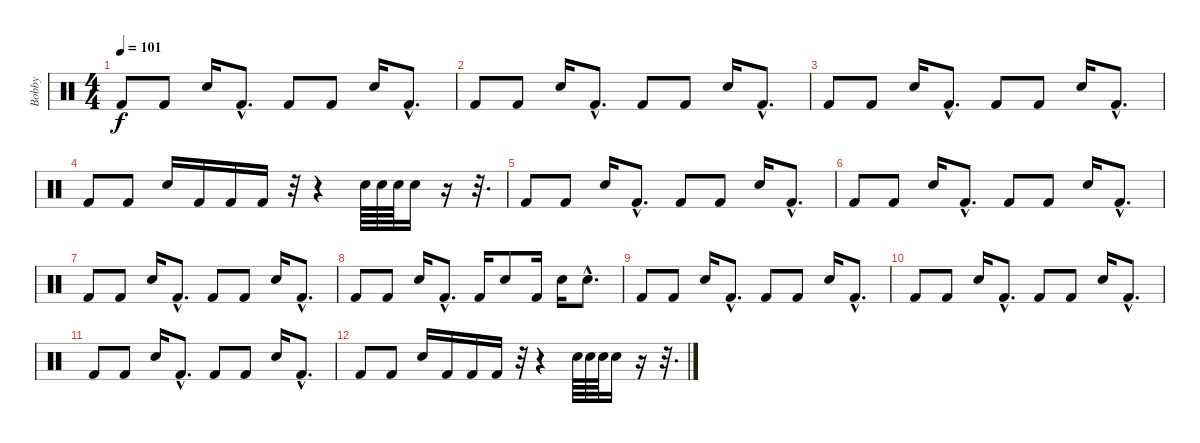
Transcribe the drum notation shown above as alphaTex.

\track ("Bobby " "Bobby ") {instrument percussion}
\staff {score}
\articulation defaults
\ts (4 4)
\tempo 101
\clef neutral
\ks c "Kick (hit) 2".8{dy f} "Kick (hit) 2".8 "Electric Snare (hit)".16 "Kick (hit) 2"{hac}.8{d} "Kick (hit) 2".8 "Kick (hit) 2".8 "Electric Snare (hit)".16 "Kick (hit) 2"{hac}.8{d}
|
"Kick (hit) 2".8 "Kick (hit) 2".8 "Electric Snare (hit)".16 "Kick (hit) 2"{hac}.8{d} "Kick (hit) 2".8 "Kick (hit) 2".8 "Electric Snare (hit)".16 "Kick (hit) 2"{hac}.8{d} |
"Kick (hit) 2".8 "Kick (hit) 2".8 "Electric Snare (hit)".16 "Kick (hit) 2"{hac}.8{d} "Kick (hit) 2".8 "Kick (hit) 2".8 "Electric Snare (hit)".16 "Kick (hit) 2"{hac}.8{d} |
"Kick (hit) 2".8 "Kick (hit) 2".8 "Electric Snare (hit)".16 "Kick (hit) 2".16 "Kick (hit) 2".16 "Kick (hit) 2".16 r.32 r.4 "Electric Snare (hit)".64 "Electric Snare (hit)".64 "Electric Snare (hit)".64 "Electric Snare (hit)".16 r.16 r.32{d} |
"Kick (hit) 2".8 "Kick (hit) 2".8 "Electric Snare (hit)".16 "Kick (hit) 2"{hac}.8{d} "Kick (hit) 2".8 "Kick (hit) 2".8 "Electric Snare (hit)".16 "Kick (hit) 2"{hac}.8{d} |
"Kick (hit) 2".8 "Kick (hit) 2".8 "Electric Snare (hit)".16 "Kick (hit) 2"{hac}.8{d} "Kick (hit) 2".8 "Kick (hit) 2".8 "Electric Snare (hit)".16 "Kick (hit) 2"{hac}.8{d} |
"Kick (hit) 2".8 "Kick (hit) 2".8 "Electric Snare (hit)".16 "Kick (hit) 2"{hac}.8{d} "Kick (hit) 2".8 "Kick (hit) 2".8 "Electric Snare (hit)".16 "Kick (hit) 2"{hac}.8{d} |
"Kick (hit) 2".8 "Kick (hit) 2".8 "Electric Snare (hit)".16 "Kick (hit) 2"{hac}.8{d} "Kick (hit) 2".16 "Electric Snare (hit)".8 "Kick (hit) 2".16 "Electric Snare (hit)".16 "Electric Snare (hit)"{hac}.8{d} |
"Kick (hit) 2".8 "Kick (hit) 2".8 "Electric Snare (hit)".16 "Kick (hit) 2"{hac}.8{d} "Kick (hit) 2".8 "Kick (hit) 2".8 "Electric Snare (hit)".16 "Kick (hit) 2"{hac}.8{d} |
"Kick (hit) 2".8 "Kick (hit) 2".8 "Electric Snare (hit)".16 "Kick (hit) 2"{hac}.8{d} "Kick (hit) 2".8 "Kick (hit) 2".8 "Electric Snare (hit)".16 "Kick (hit) 2"{hac}.8{d} |
"Kick (hit) 2".8 "Kick (hit) 2".8 "Electric Snare (hit)".16 "Kick (hit) 2"{hac}.8{d} "Kick (hit) 2".8 "Kick (hit) 2".8 "Electric Snare (hit)".16 "Kick (hit) 2"{hac}.8{d} |
"Kick (hit) 2".8 "Kick (hit) 2".8 "Electric Snare (hit)".16 "Kick (hit) 2".16 "Kick (hit) 2".16 "Kick (hit) 2".16 r.32 r.4 "Electric Snare (hit)".64 "Electric Snare (hit)".64 "Electric Snare (hit)".64 "Electric Snare (hit)".16 r.16 r.32{d}
